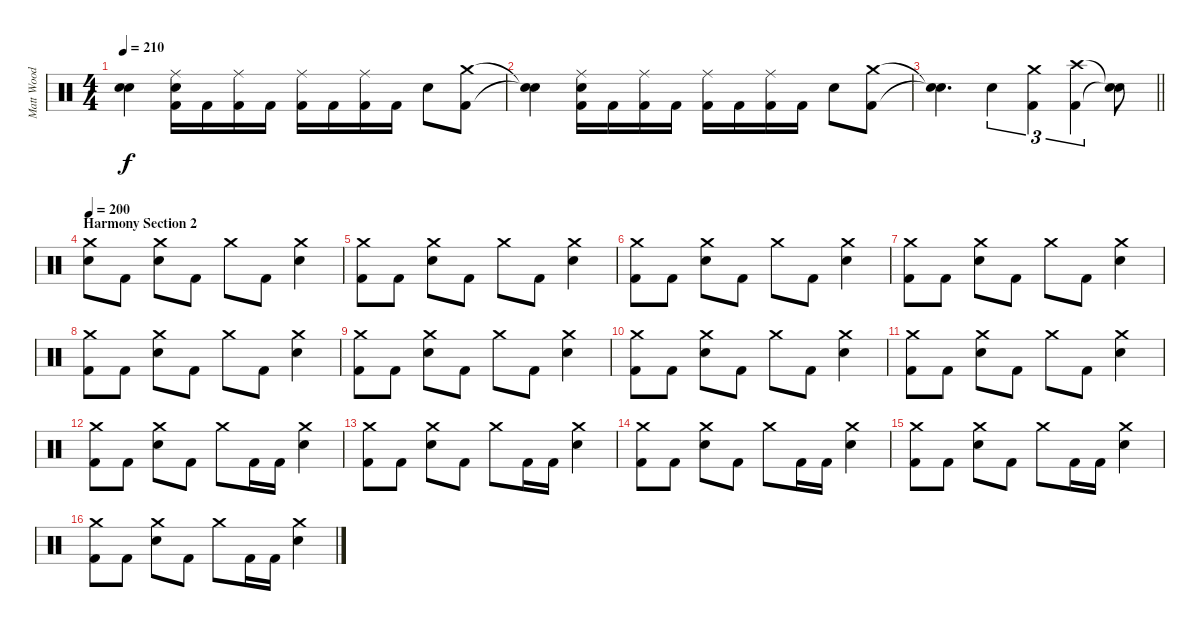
\track ("Matt Wood" "Matt Wood") {instrument percussion}
\staff {score}
\articulation defaults
\ts (4 4)
\tempo 210
\clef neutral
\ks c
("Snare (hit)"{t} "Snare (hit)"{t}).4{dy f} ("Ride (middle)" "Snare (hit) 2" "Kick (hit) 2").16 "Kick (hit) 2".16 ("Ride (middle)" "Kick (hit) 2").16 "Kick (hit) 2".16 ("Ride (middle)" "Kick (hit) 2").16 "Kick (hit) 2".16 ("Ride (middle)" "Kick (hit) 2").16 "Kick (hit) 2".16 "Snare (hit) 2".8 ("Crash medium (hit)" "Kick (hit) 2").8 |
("Snare (hit)"{t} "Snare (hit)"{t}).4 ("Ride (middle)" "Snare (hit) 2" "Kick (hit) 2").16 "Kick (hit) 2".16 ("Ride (middle)" "Kick (hit) 2").16 "Kick (hit) 2".16 ("Ride (middle)" "Kick (hit) 2").16 "Kick (hit) 2".16 ("Ride (middle)" "Kick (hit) 2").16 "Kick (hit) 2".16 "Snare (hit) 2".8 ("Crash medium (hit)" "Kick (hit) 2").8 |
\barLineRight lightlight
("Snare (hit)"{t} "Snare (hit)"{t}).4{d} "Snare (hit) 2".4{tu (3 2)} ("Crash medium (hit)" "Kick (hit) 2").4{tu (3 2)} ("Crash high (hit)" "Kick (hit) 2").4{tu (3 2)} ("Snare (hit)"{t} "Snare (hit)"{t}).8 |
\section ("" "Harmony Section 2")
\tempo 200
("Crash medium (hit)" "Snare (hit) 2").8 "Kick (hit) 2".8 ("Crash medium (hit)" "Snare (hit) 2").8 "Kick (hit) 2".8 "Crash medium (hit)".8 "Kick (hit) 2".8 ("Crash medium (hit)" "Snare (hit) 2").4 |
("Crash medium (hit)" "Kick (hit) 2").8 "Kick (hit) 2".8 ("Crash medium (hit)" "Snare (hit) 2").8 "Kick (hit) 2".8 "Crash medium (hit)".8 "Kick (hit) 2".8 ("Crash medium (hit)" "Snare (hit) 2").4 |
("Crash medium (hit)" "Kick (hit) 2").8 "Kick (hit) 2".8 ("Crash medium (hit)" "Snare (hit) 2").8 "Kick (hit) 2".8 "Crash medium (hit)".8 "Kick (hit) 2".8 ("Crash medium (hit)" "Snare (hit) 2").4 |
("Crash medium (hit)" "Kick (hit) 2").8 "Kick (hit) 2".8 ("Crash medium (hit)" "Snare (hit) 2").8 "Kick (hit) 2".8 "Crash medium (hit)".8 "Kick (hit) 2".8 ("Crash medium (hit)" "Snare (hit) 2").4 |
("Crash medium (hit)" "Kick (hit) 2").8 "Kick (hit) 2".8 ("Crash medium (hit)" "Snare (hit) 2").8 "Kick (hit) 2".8 "Crash medium (hit)".8 "Kick (hit) 2".8 ("Crash medium (hit)" "Snare (hit) 2").4 |
("Crash medium (hit)" "Kick (hit) 2").8 "Kick (hit) 2".8 ("Crash medium (hit)" "Snare (hit) 2").8 "Kick (hit) 2".8 "Crash medium (hit)".8 "Kick (hit) 2".8 ("Crash medium (hit)" "Snare (hit) 2").4 |
("Crash medium (hit)" "Kick (hit) 2").8 "Kick (hit) 2".8 ("Crash medium (hit)" "Snare (hit) 2").8 "Kick (hit) 2".8 "Crash medium (hit)".8 "Kick (hit) 2".8 ("Crash medium (hit)" "Snare (hit) 2").4 |
("Crash medium (hit)" "Kick (hit) 2").8 "Kick (hit) 2".8 ("Crash medium (hit)" "Snare (hit) 2").8 "Kick (hit) 2".8 "Crash medium (hit)".8 "Kick (hit) 2".8 ("Crash medium (hit)" "Snare (hit) 2").4 |
("Crash medium (hit)" "Kick (hit) 2").8 "Kick (hit) 2".8 ("Crash medium (hit)" "Snare (hit) 2").8 "Kick (hit) 2".8 "Crash medium (hit)".8 "Kick (hit) 2".16 "Kick (hit) 2".16 ("Crash medium (hit)" "Snare (hit) 2").4 |
("Crash medium (hit)" "Kick (hit) 2").8 "Kick (hit) 2".8 ("Crash medium (hit)" "Snare (hit) 2").8 "Kick (hit) 2".8 "Crash medium (hit)".8 "Kick (hit) 2".16 "Kick (hit) 2".16 ("Crash medium (hit)" "Snare (hit) 2").4 |
("Crash medium (hit)" "Kick (hit) 2").8 "Kick (hit) 2".8 ("Crash medium (hit)" "Snare (hit) 2").8 "Kick (hit) 2".8 "Crash medium (hit)".8 "Kick (hit) 2".16 "Kick (hit) 2".16 ("Crash medium (hit)" "Snare (hit) 2").4 |
("Crash medium (hit)" "Kick (hit) 2").8 "Kick (hit) 2".8 ("Crash medium (hit)" "Snare (hit) 2").8 "Kick (hit) 2".8 "Crash medium (hit)".8 "Kick (hit) 2".16 "Kick (hit) 2".16 ("Crash medium (hit)" "Snare (hit) 2").4 |
("Crash medium (hit)" "Kick (hit) 2").8 "Kick (hit) 2".8 ("Crash medium (hit)" "Snare (hit) 2").8 "Kick (hit) 2".8 "Crash medium (hit)".8 "Kick (hit) 2".16 "Kick (hit) 2".16 ("Crash medium (hit)" "Snare (hit) 2").4
